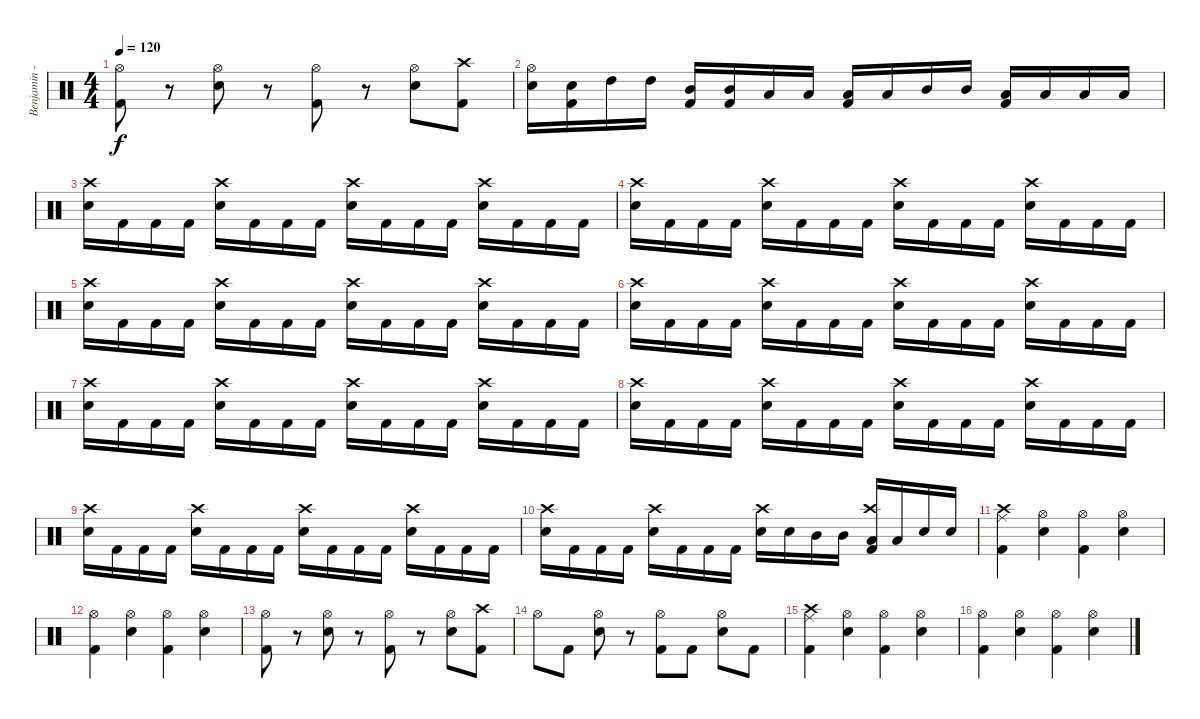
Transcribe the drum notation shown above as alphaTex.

\track ("Benjamin - Drums" "Benjamin -") {instrument percussion}
\staff {score}
\articulation defaults
\ts (4 4)
\tempo 120
\clef neutral
\ks c
("Hi-Hat (open)" "Kick (hit) 2").8{dy f} r.8 ("Hi-Hat (open)" "Snare (hit) 2").8 r.8 ("Hi-Hat (open)" "Kick (hit) 2").8 r.8 ("Hi-Hat (open)" "Snare (hit) 2").8 ("Crash high (hit)" "Kick (hit) 2").8 |
("Hi-Hat (open)" "Snare (hit) 2").16 ("Snare (hit) 2" "Kick (hit) 2").16 "High Tom (hit)".16 "High Tom (hit)".16 ("Mid Tom (hit)" "Kick (hit) 2").16 ("Mid Tom (hit)" "Kick (hit) 2").16 "Low Tom (hit)".16 "Low Tom (hit)".16 ("Low Floor Tom (hit)" "Kick (hit) 2").16 "Low Floor Tom (hit)".16 "Mid Tom (hit)".16 "Mid Tom (hit)".16 ("Low Tom (hit)" "Kick (hit) 2").16 "Low Tom (hit)".16 "Low Floor Tom (hit)".16 "Low Floor Tom (hit)".16 |
("Crash high (hit)" "Snare (hit) 2").16 "Kick (hit) 2".16 "Kick (hit) 2".16 "Kick (hit) 2".16 ("Crash high (hit)" "Snare (hit) 2").16 "Kick (hit) 2".16 "Kick (hit) 2".16 "Kick (hit) 2".16 ("Crash high (hit)" "Snare (hit) 2").16 "Kick (hit) 2".16 "Kick (hit) 2".16 "Kick (hit) 2".16 ("Crash high (hit)" "Snare (hit) 2").16 "Kick (hit) 2".16 "Kick (hit) 2".16 "Kick (hit) 2".16 |
("Crash high (hit)" "Snare (hit) 2").16 "Kick (hit) 2".16 "Kick (hit) 2".16 "Kick (hit) 2".16 ("Crash high (hit)" "Snare (hit) 2").16 "Kick (hit) 2".16 "Kick (hit) 2".16 "Kick (hit) 2".16 ("Crash high (hit)" "Snare (hit) 2").16 "Kick (hit) 2".16 "Kick (hit) 2".16 "Kick (hit) 2".16 ("Crash high (hit)" "Snare (hit) 2").16 "Kick (hit) 2".16 "Kick (hit) 2".16 "Kick (hit) 2".16 |
("Crash high (hit)" "Snare (hit) 2").16 "Kick (hit) 2".16 "Kick (hit) 2".16 "Kick (hit) 2".16 ("Crash high (hit)" "Snare (hit) 2").16 "Kick (hit) 2".16 "Kick (hit) 2".16 "Kick (hit) 2".16 ("Crash high (hit)" "Snare (hit) 2").16 "Kick (hit) 2".16 "Kick (hit) 2".16 "Kick (hit) 2".16 ("Crash high (hit)" "Snare (hit) 2").16 "Kick (hit) 2".16 "Kick (hit) 2".16 "Kick (hit) 2".16 |
("Crash high (hit)" "Snare (hit) 2").16 "Kick (hit) 2".16 "Kick (hit) 2".16 "Kick (hit) 2".16 ("Crash high (hit)" "Snare (hit) 2").16 "Kick (hit) 2".16 "Kick (hit) 2".16 "Kick (hit) 2".16 ("Crash high (hit)" "Snare (hit) 2").16 "Kick (hit) 2".16 "Kick (hit) 2".16 "Kick (hit) 2".16 ("Crash high (hit)" "Snare (hit) 2").16 "Kick (hit) 2".16 "Kick (hit) 2".16 "Kick (hit) 2".16 |
("Crash high (hit)" "Snare (hit) 2").16 "Kick (hit) 2".16 "Kick (hit) 2".16 "Kick (hit) 2".16 ("Crash high (hit)" "Snare (hit) 2").16 "Kick (hit) 2".16 "Kick (hit) 2".16 "Kick (hit) 2".16 ("Crash high (hit)" "Snare (hit) 2").16 "Kick (hit) 2".16 "Kick (hit) 2".16 "Kick (hit) 2".16 ("Crash high (hit)" "Snare (hit) 2").16 "Kick (hit) 2".16 "Kick (hit) 2".16 "Kick (hit) 2".16 |
("Crash high (hit)" "Snare (hit) 2").16 "Kick (hit) 2".16 "Kick (hit) 2".16 "Kick (hit) 2".16 ("Crash high (hit)" "Snare (hit) 2").16 "Kick (hit) 2".16 "Kick (hit) 2".16 "Kick (hit) 2".16 ("Crash high (hit)" "Snare (hit) 2").16 "Kick (hit) 2".16 "Kick (hit) 2".16 "Kick (hit) 2".16 ("Crash high (hit)" "Snare (hit) 2").16 "Kick (hit) 2".16 "Kick (hit) 2".16 "Kick (hit) 2".16 |
("Crash high (hit)" "Snare (hit) 2").16 "Kick (hit) 2".16 "Kick (hit) 2".16 "Kick (hit) 2".16 ("Crash high (hit)" "Snare (hit) 2").16 "Kick (hit) 2".16 "Kick (hit) 2".16 "Kick (hit) 2".16 ("Crash high (hit)" "Snare (hit) 2").16 "Kick (hit) 2".16 "Kick (hit) 2".16 "Kick (hit) 2".16 ("Crash high (hit)" "Snare (hit) 2").16 "Kick (hit) 2".16 "Kick (hit) 2".16 "Kick (hit) 2".16 |
("Crash high (hit)" "Snare (hit) 2").16 "Kick (hit) 2".16 "Kick (hit) 2".16 "Kick (hit) 2".16 ("Crash high (hit)" "Snare (hit) 2").16 "Kick (hit) 2".16 "Kick (hit) 2".16 "Kick (hit) 2".16 ("Crash high (hit)" "Snare (hit) 2").16 "Snare (hit) 2".16 "Mid Tom (hit)".16 "Mid Tom (hit)".16 ("Crash high (hit)" "Low Tom (hit)" "Kick (hit) 2").16 "Low Tom (hit)".16 "Snare (hit) 2".16 "Snare (hit) 2".16 |
("Crash high (hit)" "Ride (middle)" "Kick (hit) 2").4 ("Hi-Hat (open)" "Snare (hit) 2").4 ("Hi-Hat (open)" "Kick (hit) 2").4 ("Hi-Hat (open)" "Snare (hit) 2").4 |
("Hi-Hat (open)" "Kick (hit) 2").4 ("Hi-Hat (open)" "Snare (hit) 2").4 ("Hi-Hat (open)" "Kick (hit) 2").4 ("Hi-Hat (open)" "Snare (hit) 2").4 |
("Hi-Hat (open)" "Kick (hit) 2").8 r.8 ("Hi-Hat (open)" "Snare (hit) 2").8 r.8 ("Hi-Hat (open)" "Kick (hit) 2").8 r.8 ("Hi-Hat (open)" "Snare (hit) 2").8 ("Crash high (hit)" "Kick (hit) 2").8 |
"Hi-Hat (open)".8 "Kick (hit) 2".8 ("Hi-Hat (open)" "Snare (hit) 2").8 r.8 ("Hi-Hat (open)" "Kick (hit) 2").8 "Kick (hit) 2".8 ("Hi-Hat (open)" "Snare (hit) 2").8 "Kick (hit) 2".8 |
("Crash high (hit)" "Ride (middle)" "Kick (hit) 2").4 ("Hi-Hat (open)" "Snare (hit) 2").4 ("Hi-Hat (open)" "Kick (hit) 2").4 ("Hi-Hat (open)" "Snare (hit) 2").4 |
("Hi-Hat (open)" "Kick (hit) 2").4 ("Hi-Hat (open)" "Snare (hit) 2").4 ("Hi-Hat (open)" "Kick (hit) 2").4 ("Hi-Hat (open)" "Snare (hit) 2").4
